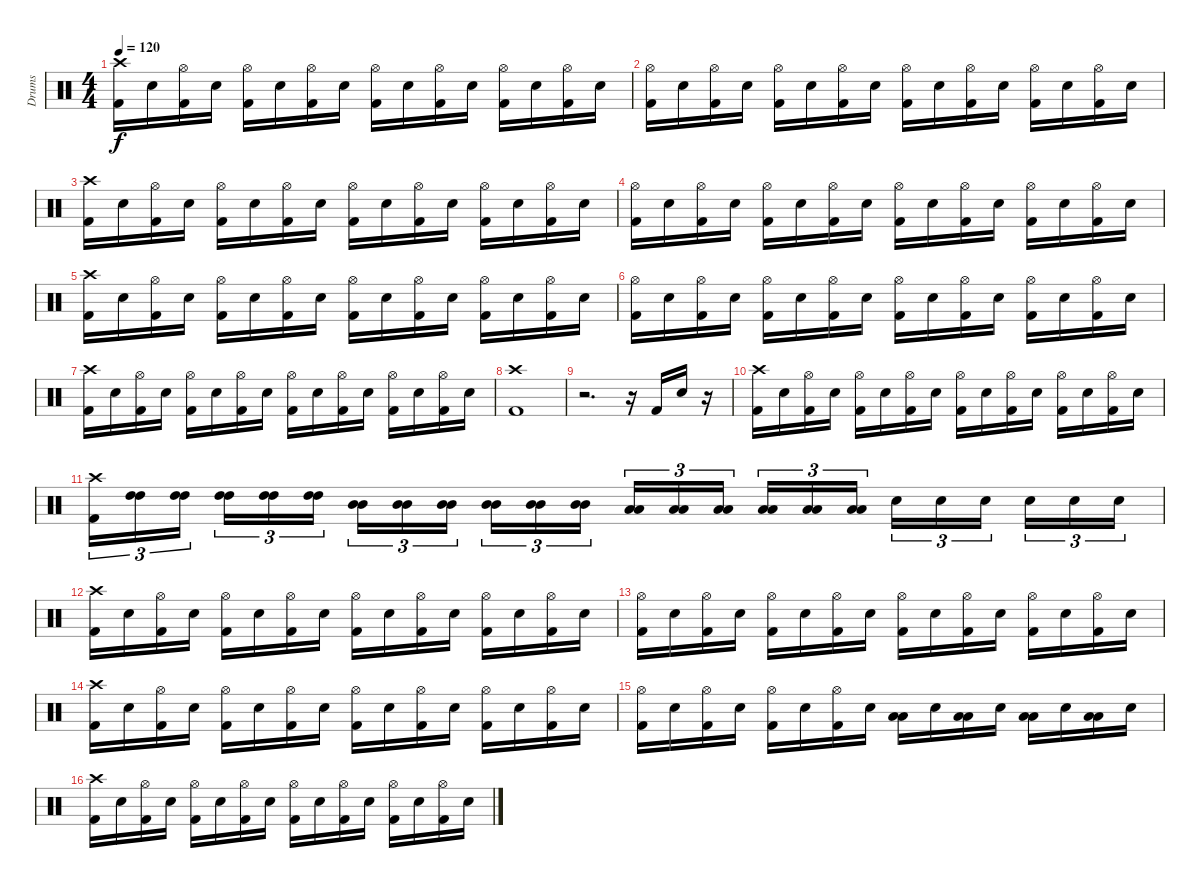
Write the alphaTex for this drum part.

\track ("Drums" "Drums") {instrument percussion}
\staff {score}
\articulation defaults
\ts (4 4)
\tempo 120
\clef neutral
\ks c
("Crash high (hit)" "Kick (hit) 2").16{dy f balance 8} "Electric Snare (hit)".16 ("Hi-Hat (open)" "Kick (hit) 2").16 "Electric Snare (hit)".16 ("Hi-Hat (open)" "Kick (hit) 2").16 "Electric Snare (hit)".16 ("Hi-Hat (open)" "Kick (hit) 2").16 "Electric Snare (hit)".16 ("Hi-Hat (open)" "Kick (hit) 2").16 "Electric Snare (hit)".16 ("Hi-Hat (open)" "Kick (hit) 2").16 "Electric Snare (hit)".16 ("Hi-Hat (open)" "Kick (hit) 2").16 "Electric Snare (hit)".16 ("Hi-Hat (open)" "Kick (hit) 2").16 "Electric Snare (hit)".16 |
("Hi-Hat (open)" "Kick (hit) 2").16 "Electric Snare (hit)".16 ("Hi-Hat (open)" "Kick (hit) 2").16 "Electric Snare (hit)".16 ("Hi-Hat (open)" "Kick (hit) 2").16 "Electric Snare (hit)".16 ("Hi-Hat (open)" "Kick (hit) 2").16 "Electric Snare (hit)".16 ("Hi-Hat (open)" "Kick (hit) 2").16 "Electric Snare (hit)".16 ("Hi-Hat (open)" "Kick (hit) 2").16 "Electric Snare (hit)".16 ("Hi-Hat (open)" "Kick (hit) 2").16 "Electric Snare (hit)".16 ("Hi-Hat (open)" "Kick (hit) 2").16 "Electric Snare (hit)".16 |
("Crash high (hit)" "Kick (hit) 2").16 "Electric Snare (hit)".16 ("Hi-Hat (open)" "Kick (hit) 2").16 "Electric Snare (hit)".16 ("Hi-Hat (open)" "Kick (hit) 2").16 "Electric Snare (hit)".16 ("Hi-Hat (open)" "Kick (hit) 2").16 "Electric Snare (hit)".16 ("Hi-Hat (open)" "Kick (hit) 2").16 "Electric Snare (hit)".16 ("Hi-Hat (open)" "Kick (hit) 2").16 "Electric Snare (hit)".16 ("Hi-Hat (open)" "Kick (hit) 2").16 "Electric Snare (hit)".16 ("Hi-Hat (open)" "Kick (hit) 2").16 "Electric Snare (hit)".16 |
("Hi-Hat (open)" "Kick (hit) 2").16 "Electric Snare (hit)".16 ("Hi-Hat (open)" "Kick (hit) 2").16 "Electric Snare (hit)".16 ("Hi-Hat (open)" "Kick (hit) 2").16 "Electric Snare (hit)".16 ("Hi-Hat (open)" "Kick (hit) 2").16 "Electric Snare (hit)".16 ("Hi-Hat (open)" "Kick (hit) 2").16 "Electric Snare (hit)".16 ("Hi-Hat (open)" "Kick (hit) 2").16 "Electric Snare (hit)".16 ("Hi-Hat (open)" "Kick (hit) 2").16 "Electric Snare (hit)".16 ("Hi-Hat (open)" "Kick (hit) 2").16 "Electric Snare (hit)".16 |
("Crash high (hit)" "Kick (hit) 2").16 "Electric Snare (hit)".16 ("Hi-Hat (open)" "Kick (hit) 2").16 "Electric Snare (hit)".16 ("Hi-Hat (open)" "Kick (hit) 2").16 "Electric Snare (hit)".16 ("Hi-Hat (open)" "Kick (hit) 2").16 "Electric Snare (hit)".16 ("Hi-Hat (open)" "Kick (hit) 2").16 "Electric Snare (hit)".16 ("Hi-Hat (open)" "Kick (hit) 2").16 "Electric Snare (hit)".16 ("Hi-Hat (open)" "Kick (hit) 2").16 "Electric Snare (hit)".16 ("Hi-Hat (open)" "Kick (hit) 2").16 "Electric Snare (hit)".16 |
("Hi-Hat (open)" "Kick (hit) 2").16 "Electric Snare (hit)".16 ("Hi-Hat (open)" "Kick (hit) 2").16 "Electric Snare (hit)".16 ("Hi-Hat (open)" "Kick (hit) 2").16 "Electric Snare (hit)".16 ("Hi-Hat (open)" "Kick (hit) 2").16 "Electric Snare (hit)".16 ("Hi-Hat (open)" "Kick (hit) 2").16 "Electric Snare (hit)".16 ("Hi-Hat (open)" "Kick (hit) 2").16 "Electric Snare (hit)".16 ("Hi-Hat (open)" "Kick (hit) 2").16 "Electric Snare (hit)".16 ("Hi-Hat (open)" "Kick (hit) 2").16 "Electric Snare (hit)".16 |
("Crash high (hit)" "Kick (hit) 2").16 "Electric Snare (hit)".16 ("Hi-Hat (open)" "Kick (hit) 2").16 "Electric Snare (hit)".16 ("Hi-Hat (open)" "Kick (hit) 2").16 "Electric Snare (hit)".16 ("Hi-Hat (open)" "Kick (hit) 2").16 "Electric Snare (hit)".16 ("Hi-Hat (open)" "Kick (hit) 2").16 "Electric Snare (hit)".16 ("Hi-Hat (open)" "Kick (hit) 2").16 "Electric Snare (hit)".16 ("Hi-Hat (open)" "Kick (hit) 2").16 "Electric Snare (hit)".16 ("Hi-Hat (open)" "Kick (hit) 2").16 "Electric Snare (hit)".16 |
("Crash high (hit)" "Kick (hit) 2").1 |
r.2{d} r.16 "Kick (hit) 2".16 "Electric Snare (hit)".16 r.16 |
("Crash high (hit)" "Kick (hit) 2").16 "Electric Snare (hit)".16 ("Hi-Hat (open)" "Kick (hit) 2").16 "Electric Snare (hit)".16 ("Hi-Hat (open)" "Kick (hit) 2").16 "Electric Snare (hit)".16 ("Hi-Hat (open)" "Kick (hit) 2").16 "Electric Snare (hit)".16 ("Hi-Hat (open)" "Kick (hit) 2").16 "Electric Snare (hit)".16 ("Hi-Hat (open)" "Kick (hit) 2").16 "Electric Snare (hit)".16 ("Hi-Hat (open)" "Kick (hit) 2").16 "Electric Snare (hit)".16 ("Hi-Hat (open)" "Kick (hit) 2").16 "Electric Snare (hit)".16 |
("Crash high (hit)" "Kick (hit) 2").16{tu (3 2)} ("High Tom (hit)" "High Tom (hit)").16{tu (3 2) balance 10} ("High Tom (hit)" "High Tom (hit)").16{tu (3 2)} ("High Tom (hit)" "High Tom (hit)").16{tu (3 2)} ("High Tom (hit)" "High Tom (hit)").16{tu (3 2)} ("High Tom (hit)" "High Tom (hit)").16{tu (3 2)} ("Mid Tom (hit)" "Mid Tom (hit)").16{tu (3 2) balance 8} ("Mid Tom (hit)" "Mid Tom (hit)").16{tu (3 2)} ("Mid Tom (hit)" "Mid Tom (hit)").16{tu (3 2)} ("Mid Tom (hit)" "Mid Tom (hit)").16{tu (3 2)} ("Mid Tom (hit)" "Mid Tom (hit)").16{tu (3 2)} ("Mid Tom (hit)" "Mid Tom (hit)").16{tu (3 2)} ("Low Tom (hit)" "Low Tom (hit)").16{tu (3 2) balance 6} ("Low Tom (hit)" "Low Tom (hit)").16{tu (3 2)} ("Low Tom (hit)" "Low Tom (hit)").16{tu (3 2)} ("Low Tom (hit)" "Low Tom (hit)").16{tu (3 2)} ("Low Tom (hit)" "Low Tom (hit)").16{tu (3 2)} ("Low Tom (hit)" "Low Tom (hit)").16{tu (3 2)} "Electric Snare (hit)".16{tu (3 2) balance 8} "Electric Snare (hit)".16{tu (3 2)} "Electric Snare (hit)".16{tu (3 2)} "Electric Snare (hit)".16{tu (3 2)} "Electric Snare (hit)".16{tu (3 2)} "Electric Snare (hit)".16{tu (3 2)} |
("Crash high (hit)" "Kick (hit) 2").16 "Electric Snare (hit)".16 ("Hi-Hat (open)" "Kick (hit) 2").16 "Electric Snare (hit)".16 ("Hi-Hat (open)" "Kick (hit) 2").16 "Electric Snare (hit)".16 ("Hi-Hat (open)" "Kick (hit) 2").16 "Electric Snare (hit)".16 ("Hi-Hat (open)" "Kick (hit) 2").16 "Electric Snare (hit)".16 ("Hi-Hat (open)" "Kick (hit) 2").16 "Electric Snare (hit)".16 ("Hi-Hat (open)" "Kick (hit) 2").16 "Electric Snare (hit)".16 ("Hi-Hat (open)" "Kick (hit) 2").16 "Electric Snare (hit)".16 |
("Hi-Hat (open)" "Kick (hit) 2").16 "Electric Snare (hit)".16 ("Hi-Hat (open)" "Kick (hit) 2").16 "Electric Snare (hit)".16 ("Hi-Hat (open)" "Kick (hit) 2").16 "Electric Snare (hit)".16 ("Hi-Hat (open)" "Kick (hit) 2").16 "Electric Snare (hit)".16 ("Hi-Hat (open)" "Kick (hit) 2").16 "Electric Snare (hit)".16 ("Hi-Hat (open)" "Kick (hit) 2").16 "Electric Snare (hit)".16 ("Hi-Hat (open)" "Kick (hit) 2").16 "Electric Snare (hit)".16 ("Hi-Hat (open)" "Kick (hit) 2").16 "Electric Snare (hit)".16 |
("Crash high (hit)" "Kick (hit) 2").16 "Electric Snare (hit)".16 ("Hi-Hat (open)" "Kick (hit) 2").16 "Electric Snare (hit)".16 ("Hi-Hat (open)" "Kick (hit) 2").16 "Electric Snare (hit)".16 ("Hi-Hat (open)" "Kick (hit) 2").16 "Electric Snare (hit)".16 ("Hi-Hat (open)" "Kick (hit) 2").16 "Electric Snare (hit)".16 ("Hi-Hat (open)" "Kick (hit) 2").16 "Electric Snare (hit)".16 ("Hi-Hat (open)" "Kick (hit) 2").16 "Electric Snare (hit)".16 ("Hi-Hat (open)" "Kick (hit) 2").16 "Electric Snare (hit)".16 |
("Hi-Hat (open)" "Kick (hit) 2").16 "Electric Snare (hit)".16 ("Hi-Hat (open)" "Kick (hit) 2").16 "Electric Snare (hit)".16 ("Hi-Hat (open)" "Kick (hit) 2").16 "Electric Snare (hit)".16 ("Hi-Hat (open)" "Kick (hit) 2").16 "Electric Snare (hit)".16 ("Low Tom (hit)" "Low Tom (hit)").16{balance 10} "Electric Snare (hit)".16{balance 8} ("Low Tom (hit)" "Low Tom (hit)").16{balance 10} "Electric Snare (hit)".16{balance 8} ("Low Tom (hit)" "Low Tom (hit)").16{balance 10} "Electric Snare (hit)".16{balance 8} ("Low Tom (hit)" "Low Tom (hit)").16{balance 10} "Electric Snare (hit)".16{balance 8} |
("Crash high (hit)" "Kick (hit) 2").16 "Electric Snare (hit)".16 ("Hi-Hat (open)" "Kick (hit) 2").16 "Electric Snare (hit)".16 ("Hi-Hat (open)" "Kick (hit) 2").16 "Electric Snare (hit)".16 ("Hi-Hat (open)" "Kick (hit) 2").16 "Electric Snare (hit)".16 ("Hi-Hat (open)" "Kick (hit) 2").16 "Electric Snare (hit)".16 ("Hi-Hat (open)" "Kick (hit) 2").16 "Electric Snare (hit)".16 ("Hi-Hat (open)" "Kick (hit) 2").16 "Electric Snare (hit)".16 ("Hi-Hat (open)" "Kick (hit) 2").16 "Electric Snare (hit)".16
